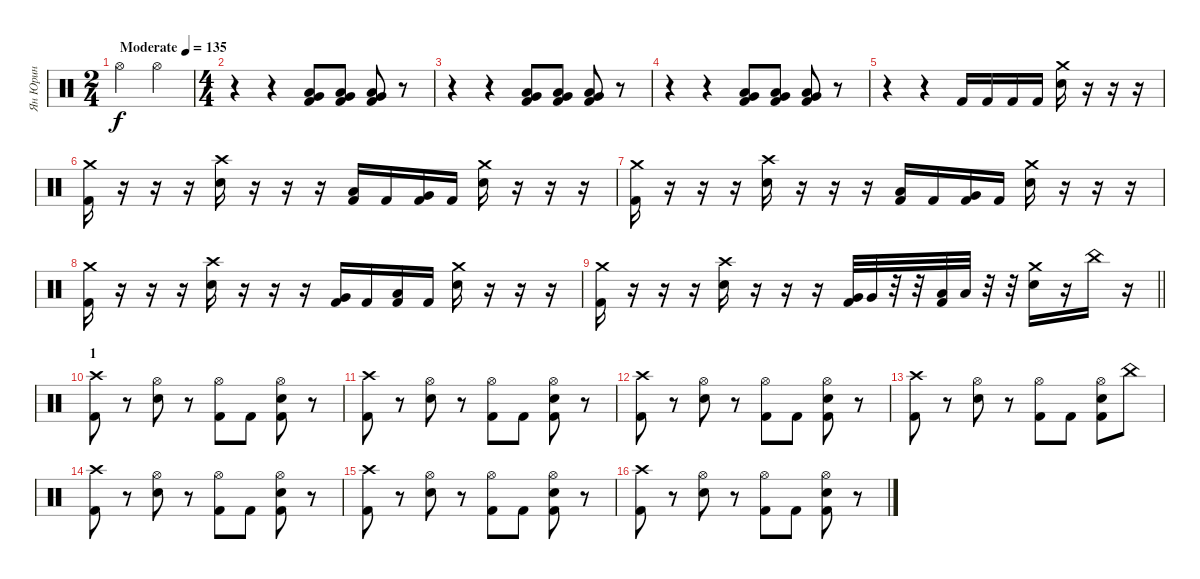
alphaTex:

\track ("Ян Юрин" "Ян Юрин") {instrument percussion}
\staff {score}
\articulation defaults
\ts (2 4)
\tempo (135 "Moderate")
\clef neutral
\ks c "Hi-Hat (open)".4{dy f} "Hi-Hat (open)".4
|
\ts (4 4)
r.4 r.4 ("Very Low Tom (hit)" "Low Floor Tom (hit)" "Kick (hit) 2").8 ("Very Low Tom (hit)" "Low Floor Tom (hit)" "Kick (hit) 2").8 ("Very Low Tom (hit)" "Low Floor Tom (hit)" "Kick (hit) 2").8 r.8 |
r.4 r.4 ("Very Low Tom (hit)" "Low Floor Tom (hit)" "Kick (hit) 2").8 ("Very Low Tom (hit)" "Low Floor Tom (hit)" "Kick (hit) 2").8 ("Very Low Tom (hit)" "Low Floor Tom (hit)" "Kick (hit) 2").8 r.8 |
r.4 r.4 ("Very Low Tom (hit)" "Low Floor Tom (hit)" "Kick (hit) 2").8 ("Very Low Tom (hit)" "Low Floor Tom (hit)" "Kick (hit) 2").8 ("Very Low Tom (hit)" "Low Floor Tom (hit)" "Kick (hit) 2").8 r.8 |
r.4 r.4 "Kick (hit) 2".16 "Kick (hit) 2".16 "Kick (hit) 2".16 "Kick (hit) 2".16 ("Crash medium (hit)" "Electric Snare (hit)").16 r.16 r.16 r.16 |
("Crash medium (hit)" "Kick (hit) 2").16 r.16 r.16 r.16 ("Crash high (hit)" "Electric Snare (hit)").16 r.16 r.16 r.16 ("Low Tom (hit)" "Kick (hit) 2").16 "Kick (hit) 2".16 ("Very Low Tom (hit)" "Kick (hit) 2").16 "Kick (hit) 2".16 ("Crash medium (hit)" "Electric Snare (hit)").16 r.16 r.16 r.16 |
("Crash medium (hit)" "Kick (hit) 2").16 r.16 r.16 r.16 ("Crash high (hit)" "Electric Snare (hit)").16 r.16 r.16 r.16 ("Low Tom (hit)" "Kick (hit) 2").16 "Kick (hit) 2".16 ("Very Low Tom (hit)" "Kick (hit) 2").16 "Kick (hit) 2".16 ("Crash medium (hit)" "Electric Snare (hit)").16 r.16 r.16 r.16 |
("Crash medium (hit)" "Kick (hit) 2").16 r.16 r.16 r.16 ("Crash high (hit)" "Electric Snare (hit)").16 r.16 r.16 r.16 ("Very Low Tom (hit)" "Kick (hit) 2").16 "Kick (hit) 2".16 ("Low Floor Tom (hit)" "Kick (hit) 2").16 "Kick (hit) 2".16 ("Crash medium (hit)" "Electric Snare (hit)").16 r.16 r.16 r.16 |
\barLineRight lightlight
("Crash medium (hit)" "Kick (hit) 2").16 r.16 r.16 r.16 ("Crash high (hit)" "Electric Snare (hit)").16 r.16 r.16 r.16 ("Very Low Tom (hit)" "Kick (hit) 2").32 "Very Low Tom (hit)".32 r.32 r.32 ("Low Floor Tom (hit)" "Kick (hit) 2").32 "Low Floor Tom (hit)".32 r.32 r.32 ("Crash medium (hit)" "Electric Snare (hit)").16 r.16 "China (hit)".16 r.16 |
\section ("" "1")
("Crash high (hit)" "Kick (hit) 2").8 r.8 ("Hi-Hat (open)" "Electric Snare (hit)").8 r.8 ("Hi-Hat (open)" "Kick (hit) 2").8 "Kick (hit) 2".8 ("Hi-Hat (open)" "Electric Snare (hit)" "Kick (hit) 2").8 r.8 |
("Crash high (hit)" "Kick (hit) 2").8 r.8 ("Hi-Hat (open)" "Electric Snare (hit)").8 r.8 ("Hi-Hat (open)" "Kick (hit) 2").8 "Kick (hit) 2".8 ("Hi-Hat (open)" "Electric Snare (hit)" "Kick (hit) 2").8 r.8 |
("Crash high (hit)" "Kick (hit) 2").8 r.8 ("Hi-Hat (open)" "Electric Snare (hit)").8 r.8 ("Hi-Hat (open)" "Kick (hit) 2").8 "Kick (hit) 2".8 ("Hi-Hat (open)" "Electric Snare (hit)" "Kick (hit) 2").8 r.8 |
("Crash high (hit)" "Kick (hit) 2").8 r.8 ("Hi-Hat (open)" "Electric Snare (hit)").8 r.8 ("Hi-Hat (open)" "Kick (hit) 2").8 "Kick (hit) 2".8 ("Hi-Hat (open)" "Electric Snare (hit)" "Kick (hit) 2").8 "China (hit)".8 |
("Crash high (hit)" "Kick (hit) 2").8 r.8 ("Hi-Hat (open)" "Electric Snare (hit)").8 r.8 ("Hi-Hat (open)" "Kick (hit) 2").8 "Kick (hit) 2".8 ("Hi-Hat (open)" "Electric Snare (hit)" "Kick (hit) 2").8 r.8 |
("Crash high (hit)" "Kick (hit) 2").8 r.8 ("Hi-Hat (open)" "Electric Snare (hit)").8 r.8 ("Hi-Hat (open)" "Kick (hit) 2").8 "Kick (hit) 2".8 ("Hi-Hat (open)" "Electric Snare (hit)" "Kick (hit) 2").8 r.8 |
("Crash high (hit)" "Kick (hit) 2").8 r.8 ("Hi-Hat (open)" "Electric Snare (hit)").8 r.8 ("Hi-Hat (open)" "Kick (hit) 2").8 "Kick (hit) 2".8 ("Hi-Hat (open)" "Electric Snare (hit)" "Kick (hit) 2").8 r.8
